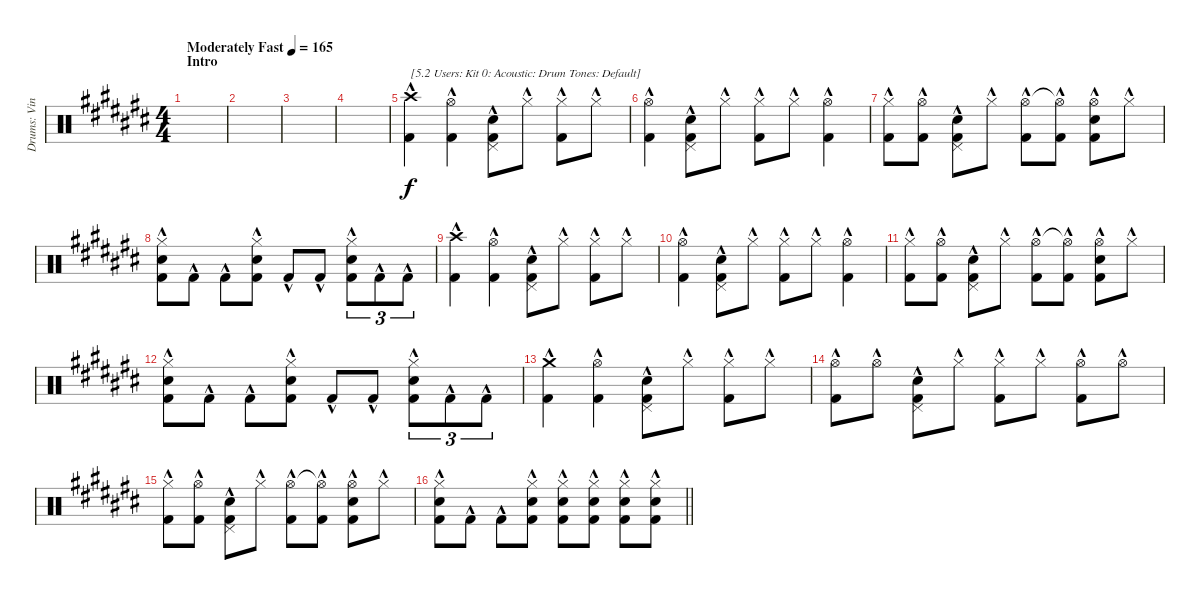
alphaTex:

\track ("Drums: Vinny" "Drums: Vin") {instrument percussion}
\staff {score}
\articulation defaults
\ts (4 4)
\section ("" "Intro")
\tempo (165 "Moderately Fast")
\clef neutral
\ks c#
|
|
|
|
("Crash high (hit)"{hac} "Kick (hit) 2"{hac}).4{txt "[5.2 Users: Kit 0: Acoustic: Drum Tones: Default]"} ("Hi-Hat (open)"{hac} "Kick (hit) 2"{hac}).4 ("Pedal Hi-Hat (hit)"{hac} "Snare (hit) 2"{hac} "Kick (hit) 2"{hac}).8 "Hi-Hat (closed)"{hac}.8 ("Hi-Hat (closed)"{hac} "Kick (hit) 2"{hac}).8 "Hi-Hat (closed)"{hac}.8 |
("Hi-Hat (open)"{hac} "Kick (hit) 2"{hac}).4 ("Pedal Hi-Hat (hit)"{hac} "Snare (hit) 2"{hac} "Kick (hit) 2"{hac}).8 "Hi-Hat (closed)"{hac}.8 ("Hi-Hat (closed)"{hac} "Kick (hit) 2"{hac}).8 "Hi-Hat (closed)"{hac}.8 ("Hi-Hat (open)"{hac} "Kick (hit) 2"{hac}).4 |
("Hi-Hat (closed)"{hac} "Kick (hit) 2"{hac}).8 ("Hi-Hat (open)"{hac} "Kick (hit) 2"{hac}).8 ("Pedal Hi-Hat (hit)"{hac} "Snare (hit) 2"{hac} "Kick (hit) 2"{hac}).8 "Hi-Hat (closed)"{hac}.8 ("Hi-Hat (open)"{hac} "Kick (hit) 2"{hac}).8 ("Hi-Hat (open)"{t} "Kick (hit) 2"{hac}).8 ("Hi-Hat (open)"{hac} "Snare (hit) 2"{hac} "Kick (hit) 2"{hac}).8 "Hi-Hat (closed)"{hac}.8 |
("Hi-Hat (closed)"{hac} "Snare (hit) 2"{hac} "Kick (hit) 2"{hac}).8 "Kick (hit) 2"{hac}.8 "Kick (hit) 2"{hac}.8 ("Hi-Hat (closed)"{hac} "Snare (hit) 2"{hac} "Kick (hit) 2"{hac}).8 "Kick (hit) 2"{hac}.8 "Kick (hit) 2"{hac}.8 ("Hi-Hat (closed)"{hac} "Snare (hit) 2"{hac} "Kick (hit) 2"{hac}).8{tu (3 2)} "Kick (hit) 2"{hac}.8{tu (3 2)} "Kick (hit) 2"{hac}.8{tu (3 2)} |
("Crash high (hit)"{hac} "Kick (hit) 2"{hac}).4 ("Hi-Hat (open)"{hac} "Kick (hit) 2"{hac}).4 ("Pedal Hi-Hat (hit)"{hac} "Snare (hit) 2"{hac} "Kick (hit) 2"{hac}).8 "Hi-Hat (closed)"{hac}.8 ("Hi-Hat (closed)"{hac} "Kick (hit) 2"{hac}).8 "Hi-Hat (closed)"{hac}.8 |
("Hi-Hat (open)"{hac} "Kick (hit) 2"{hac}).4 ("Pedal Hi-Hat (hit)"{hac} "Snare (hit) 2"{hac} "Kick (hit) 2"{hac}).8 "Hi-Hat (closed)"{hac}.8 ("Hi-Hat (closed)"{hac} "Kick (hit) 2"{hac}).8 "Hi-Hat (closed)"{hac}.8 ("Hi-Hat (open)"{hac} "Kick (hit) 2"{hac}).4 |
("Hi-Hat (closed)"{hac} "Kick (hit) 2"{hac}).8 ("Hi-Hat (open)"{hac} "Kick (hit) 2"{hac}).8 ("Pedal Hi-Hat (hit)"{hac} "Snare (hit) 2"{hac} "Kick (hit) 2"{hac}).8 "Hi-Hat (closed)"{hac}.8 ("Hi-Hat (open)"{hac} "Kick (hit) 2"{hac}).8 ("Hi-Hat (open)"{t} "Kick (hit) 2"{hac}).8 ("Hi-Hat (open)"{hac} "Snare (hit) 2"{hac} "Kick (hit) 2"{hac}).8 "Hi-Hat (closed)"{hac}.8 |
("Hi-Hat (closed)"{hac} "Snare (hit) 2"{hac} "Kick (hit) 2"{hac}).8 "Kick (hit) 2"{hac}.8 "Kick (hit) 2"{hac}.8 ("Hi-Hat (closed)"{hac} "Snare (hit) 2"{hac} "Kick (hit) 2"{hac}).8 "Kick (hit) 2"{hac}.8 "Kick (hit) 2"{hac}.8 ("Hi-Hat (closed)"{hac} "Snare (hit) 2"{hac} "Kick (hit) 2"{hac}).8{tu (3 2)} "Kick (hit) 2"{hac}.8{tu (3 2)} "Kick (hit) 2"{hac}.8{tu (3 2)} |
("Crash medium (hit)"{hac} "Kick (hit) 2"{hac}).4 ("Hi-Hat (open)"{hac} "Kick (hit) 2"{hac}).4 ("Pedal Hi-Hat (hit)"{hac} "Snare (hit) 2"{hac} "Kick (hit) 2"{hac}).8 "Hi-Hat (closed)"{hac}.8 ("Hi-Hat (closed)"{hac} "Kick (hit) 2"{hac}).8 "Hi-Hat (closed)"{hac}.8 |
("Hi-Hat (open)"{hac} "Kick (hit) 2"{hac}).8 "Hi-Hat (open)"{hac}.8 ("Pedal Hi-Hat (hit)"{hac} "Snare (hit) 2"{hac} "Kick (hit) 2"{hac}).8 "Hi-Hat (closed)"{hac}.8 ("Hi-Hat (closed)"{hac} "Kick (hit) 2"{hac}).8 "Hi-Hat (closed)"{hac}.8 ("Hi-Hat (open)"{hac} "Kick (hit) 2"{hac}).8 "Hi-Hat (open)"{hac}.8 |
("Hi-Hat (closed)"{hac} "Kick (hit) 2"{hac}).8 ("Hi-Hat (open)"{hac} "Kick (hit) 2"{hac}).8 ("Pedal Hi-Hat (hit)"{hac} "Snare (hit) 2"{hac} "Kick (hit) 2"{hac}).8 "Hi-Hat (closed)"{hac}.8 ("Hi-Hat (open)"{hac} "Kick (hit) 2"{hac}).8 ("Hi-Hat (open)"{t} "Kick (hit) 2"{hac}).8 ("Hi-Hat (open)"{hac} "Snare (hit) 2"{hac} "Kick (hit) 2"{hac}).8 "Hi-Hat (closed)"{hac}.8 |
\barLineRight lightlight
("Hi-Hat (closed)"{hac} "Snare (hit) 2"{hac} "Kick (hit) 2"{hac}).8 "Kick (hit) 2"{hac}.8 "Kick (hit) 2"{hac}.8 ("Hi-Hat (closed)"{hac} "Snare (hit) 2"{hac} "Kick (hit) 2"{hac}).8 ("Hi-Hat (closed)"{hac} "Snare (hit) 2"{hac} "Kick (hit) 2"{hac}).8 ("Hi-Hat (closed)"{hac} "Snare (hit) 2"{hac} "Kick (hit) 2"{hac}).8 ("Hi-Hat (closed)"{hac} "Snare (hit) 2"{hac} "Kick (hit) 2"{hac}).8 ("Hi-Hat (closed)"{hac} "Snare (hit) 2"{hac} "Kick (hit) 2"{hac}).8
